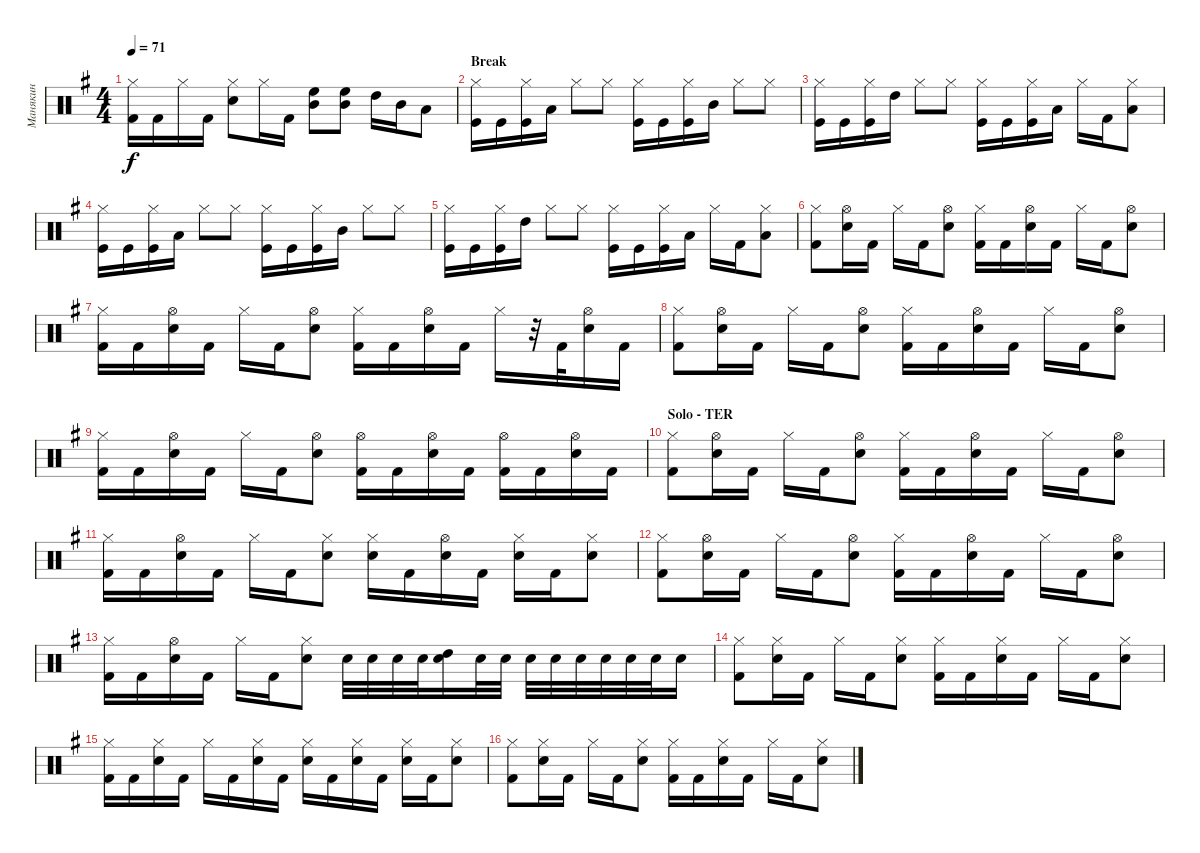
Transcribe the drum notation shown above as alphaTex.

\track ("Манякин" "Манякин") {instrument percussion}
\staff {score}
\articulation defaults
\ts (4 4)
\tempo 71
\clef neutral
\ks eminor
("Hi-Hat (closed)" "Kick (hit) 2").16{dy f} "Kick (hit) 2".16 "Hi-Hat (closed)".16 "Kick (hit) 2".16 ("Hi-Hat (closed)" "Snare (hit) 2").8 "Hi-Hat (closed)".16 "Kick (hit) 2".16 ("High Floor Tom (hit)" "Mid Tom (hit)").8 ("High Floor Tom (hit)" "Mid Tom (hit)").8 "High Tom (hit)".16 "Mid Tom (hit)".16 "Low Tom (hit)".8 |
\section ("" "Break")
("Hi-Hat (closed)" "Kick (hit)").16 "Kick (hit)".16 ("Hi-Hat (closed)" "Kick (hit)").16 "Low Tom (hit)".16 "Hi-Hat (closed)".8 "Hi-Hat (closed)".8 ("Hi-Hat (closed)" "Kick (hit)").16 "Kick (hit)".16 ("Hi-Hat (closed)" "Kick (hit)").16 "Mid Tom (hit)".16 "Hi-Hat (closed)".8 "Hi-Hat (closed)".8 |
("Hi-Hat (closed)" "Kick (hit)").16 "Kick (hit)".16 ("Hi-Hat (closed)" "Kick (hit)").16 "High Tom (hit)".16 "Hi-Hat (closed)".8 "Hi-Hat (closed)".8 ("Hi-Hat (closed)" "Kick (hit)").16 "Kick (hit)".16 ("Hi-Hat (closed)" "Kick (hit)").16 "Low Tom (hit)".16 "Hi-Hat (closed)".16 "Kick (hit) 2".16 ("Hi-Hat (closed)" "Low Tom (hit)").8 |
("Hi-Hat (closed)" "Kick (hit)").16 "Kick (hit)".16 ("Hi-Hat (closed)" "Kick (hit)").16 "Low Tom (hit)".16 "Hi-Hat (closed)".8 "Hi-Hat (closed)".8 ("Hi-Hat (closed)" "Kick (hit)").16 "Kick (hit)".16 ("Hi-Hat (closed)" "Kick (hit)").16 "Mid Tom (hit)".16 "Hi-Hat (closed)".8 "Hi-Hat (closed)".8 |
("Hi-Hat (closed)" "Kick (hit)").16 "Kick (hit)".16 ("Hi-Hat (closed)" "Kick (hit)").16 "High Tom (hit)".16 "Hi-Hat (closed)".8 "Hi-Hat (closed)".8 ("Hi-Hat (closed)" "Kick (hit)").16 "Kick (hit)".16 ("Hi-Hat (closed)" "Kick (hit)").16 "Low Tom (hit)".16 "Hi-Hat (closed)".16 "Kick (hit) 2".16 ("Hi-Hat (closed)" "Low Tom (hit)").8 |
("Hi-Hat (closed)" "Kick (hit) 2").8 ("Hi-Hat (open)" "Snare (hit) 2").16 "Kick (hit) 2".16 "Hi-Hat (closed)".16 "Kick (hit) 2".16 ("Hi-Hat (open)" "Snare (hit) 2").8 ("Hi-Hat (closed)" "Kick (hit) 2").16 "Kick (hit) 2".16 ("Hi-Hat (open)" "Snare (hit) 2").16 "Kick (hit) 2".16 "Hi-Hat (closed)".16 "Kick (hit) 2".16 ("Hi-Hat (open)" "Snare (hit) 2").8 |
("Hi-Hat (closed)" "Kick (hit) 2").16 "Kick (hit) 2".16 ("Hi-Hat (open)" "Snare (hit) 2").16 "Kick (hit) 2".16 "Hi-Hat (closed)".16 "Kick (hit) 2".16 ("Hi-Hat (open)" "Snare (hit) 2").8 ("Hi-Hat (closed)" "Kick (hit) 2").16 "Kick (hit) 2".16 ("Hi-Hat (open)" "Snare (hit) 2").16 "Kick (hit) 2".16 "Hi-Hat (closed)".16 r.32 "Kick (hit) 2".32 ("Hi-Hat (open)" "Snare (hit) 2").16 "Kick (hit) 2".16 |
("Hi-Hat (closed)" "Kick (hit) 2").8 ("Hi-Hat (open)" "Snare (hit) 2").16 "Kick (hit) 2".16 "Hi-Hat (closed)".16 "Kick (hit) 2".16 ("Hi-Hat (open)" "Snare (hit) 2").8 ("Hi-Hat (closed)" "Kick (hit) 2").16 "Kick (hit) 2".16 ("Hi-Hat (open)" "Snare (hit) 2").16 "Kick (hit) 2".16 "Hi-Hat (closed)".16 "Kick (hit) 2".16 ("Hi-Hat (open)" "Snare (hit) 2").8 |
("Hi-Hat (closed)" "Kick (hit) 2").16 "Kick (hit) 2".16 ("Hi-Hat (open)" "Snare (hit) 2").16 "Kick (hit) 2".16 "Hi-Hat (closed)".16 "Kick (hit) 2".16 ("Hi-Hat (open)" "Snare (hit) 2").8 ("Hi-Hat (open)" "Kick (hit) 2").16 "Kick (hit) 2".16 ("Hi-Hat (open)" "Snare (hit) 2").16 "Kick (hit) 2".16 ("Hi-Hat (open)" "Kick (hit) 2").16 "Kick (hit) 2".16 ("Hi-Hat (open)" "Snare (hit) 2").16 "Kick (hit) 2".16 |
\section ("" "Solo - TER")
("Hi-Hat (closed)" "Kick (hit) 2").8 ("Hi-Hat (open)" "Snare (hit) 2").16 "Kick (hit) 2".16 "Hi-Hat (closed)".16 "Kick (hit) 2".16 ("Hi-Hat (open)" "Snare (hit) 2").8 ("Hi-Hat (closed)" "Kick (hit) 2").16 "Kick (hit) 2".16 ("Hi-Hat (open)" "Snare (hit) 2").16 "Kick (hit) 2".16 "Hi-Hat (closed)".16 "Kick (hit) 2".16 ("Hi-Hat (open)" "Snare (hit) 2").8 |
("Hi-Hat (closed)" "Kick (hit) 2").16 "Kick (hit) 2".16 ("Hi-Hat (open)" "Snare (hit) 2").16 "Kick (hit) 2".16 "Hi-Hat (closed)".16 "Kick (hit) 2".16 ("Hi-Hat (closed)" "Snare (hit) 2").8 ("Hi-Hat (closed)" "Snare (hit) 2").16 "Kick (hit) 2".16 ("Hi-Hat (open)" "Snare (hit) 2").16 "Kick (hit) 2".16 ("Hi-Hat (closed)" "Snare (hit) 2").16 "Kick (hit) 2".16 ("Hi-Hat (closed)" "Snare (hit) 2").8 |
("Hi-Hat (closed)" "Kick (hit) 2").8 ("Hi-Hat (open)" "Snare (hit) 2").16 "Kick (hit) 2".16 "Hi-Hat (closed)".16 "Kick (hit) 2".16 ("Hi-Hat (open)" "Snare (hit) 2").8 ("Hi-Hat (closed)" "Kick (hit) 2").16 "Kick (hit) 2".16 ("Hi-Hat (open)" "Snare (hit) 2").16 "Kick (hit) 2".16 "Hi-Hat (closed)".16 "Kick (hit) 2".16 ("Hi-Hat (open)" "Snare (hit) 2").8 |
("Hi-Hat (closed)" "Kick (hit) 2").16 "Kick (hit) 2".16 ("Hi-Hat (open)" "Snare (hit) 2").16 "Kick (hit) 2".16 "Hi-Hat (closed)".16 "Kick (hit) 2".16 ("Hi-Hat (closed)" "Snare (hit) 2").8 "Snare (hit) 2".32 "Snare (hit) 2".32 "Snare (hit) 2".32 "Snare (hit) 2".32 ("High Tom (hit)" "Snare (hit) 2").16 "Snare (hit) 2".32 "Snare (hit) 2".32 "Snare (hit) 2".32 "Snare (hit) 2".32 "Snare (hit) 2".32 "Snare (hit) 2".32 "Snare (hit) 2".32 "Snare (hit) 2".32 "Snare (hit) 2".16 |
("Hi-Hat (closed)" "Kick (hit) 2").8 ("Hi-Hat (closed)" "Snare (hit) 2").16 "Kick (hit) 2".16 "Hi-Hat (closed)".16 "Kick (hit) 2".16 ("Hi-Hat (closed)" "Snare (hit) 2").8 ("Hi-Hat (closed)" "Kick (hit) 2").16 "Kick (hit) 2".16 ("Hi-Hat (closed)" "Snare (hit) 2").16 "Kick (hit) 2".16 "Hi-Hat (closed)".16 "Kick (hit) 2".16 ("Hi-Hat (closed)" "Snare (hit) 2").8 |
("Hi-Hat (closed)" "Kick (hit) 2").16 "Kick (hit) 2".16 ("Hi-Hat (closed)" "Snare (hit) 2").16 "Kick (hit) 2".16 "Hi-Hat (closed)".16 "Kick (hit) 2".16 ("Hi-Hat (closed)" "Snare (hit) 2").16 "Kick (hit) 2".16 ("Hi-Hat (closed)" "Snare (hit) 2").16 "Kick (hit) 2".16 ("Hi-Hat (closed)" "Snare (hit) 2").16 "Kick (hit) 2".16 ("Hi-Hat (closed)" "Snare (hit) 2").16 "Kick (hit) 2".16 ("Hi-Hat (closed)" "Snare (hit) 2").8 |
("Hi-Hat (closed)" "Kick (hit) 2").8 ("Hi-Hat (closed)" "Snare (hit) 2").16 "Kick (hit) 2".16 "Hi-Hat (closed)".16 "Kick (hit) 2".16 ("Hi-Hat (closed)" "Snare (hit) 2").8 ("Hi-Hat (closed)" "Kick (hit) 2").16 "Kick (hit) 2".16 ("Hi-Hat (closed)" "Snare (hit) 2").16 "Kick (hit) 2".16 "Hi-Hat (closed)".16 "Kick (hit) 2".16 ("Hi-Hat (closed)" "Snare (hit) 2").8
